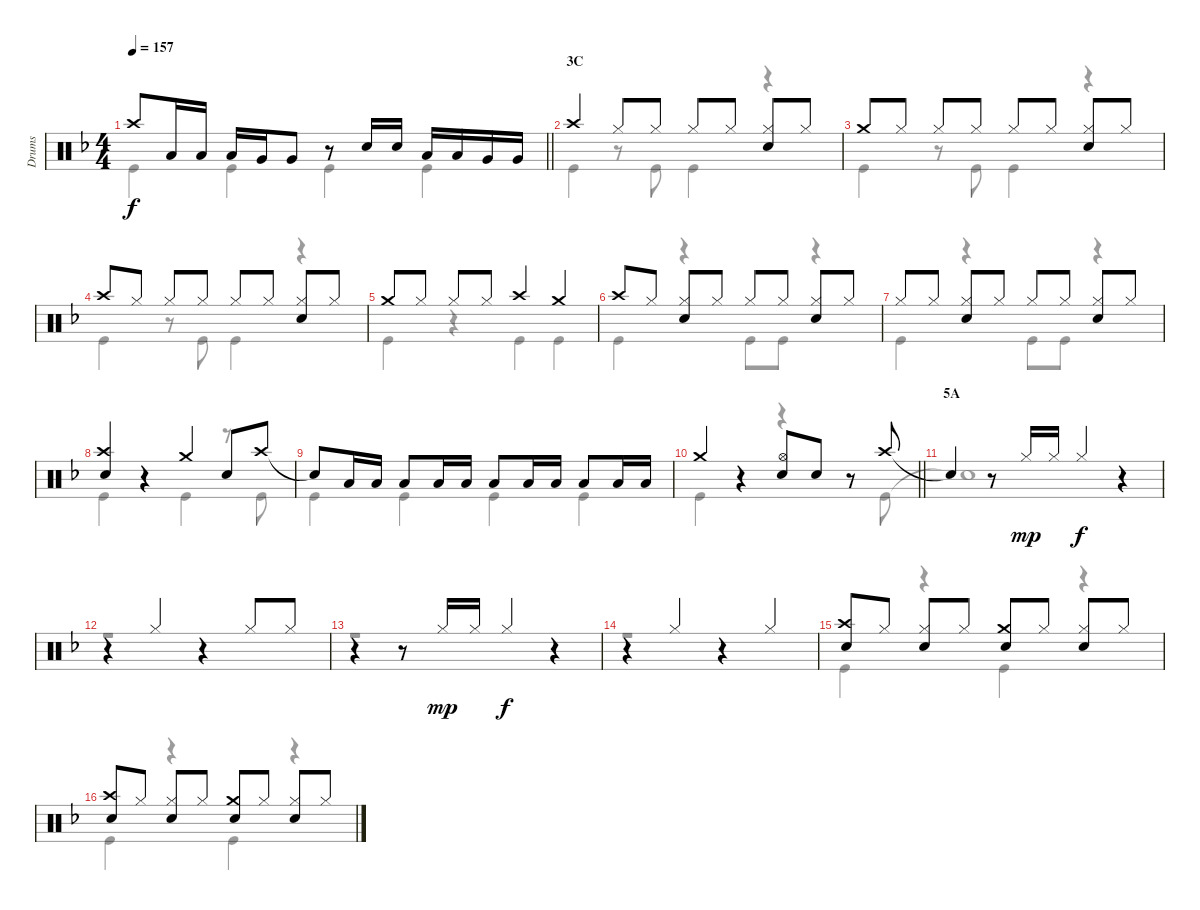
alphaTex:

\track ("Drums" "Drums") {instrument percussion}
\staff {score}
\articulation defaults
\voice
\ts (4 4)
\tempo 157
\clef neutral
\barLineRight lightlight
\ks f "Crash high (hit)".8{dy f} "Low Tom (hit)".16 "Low Tom (hit)".16 "Low Tom (hit)".16 "Very Low Tom (hit)".16 "Very Low Tom (hit)".8
r.8 "Snare (hit) 2".16 "Snare (hit) 2".16 "Low Tom (hit)".16 "Low Tom (hit)".16 "Very Low Tom (hit)".16 "Very Low Tom (hit)".16 |
\section ("" "3C")
"Crash high (hit)".4 "Hi-Hat (closed)".8 "Hi-Hat (closed)".8 "Hi-Hat (closed)".8 "Hi-Hat (closed)".8 ("Hi-Hat (closed)" "Snare (hit) 2").8 "Hi-Hat (closed)".8 |
"Crash medium (hit)".8 "Hi-Hat (closed)".8 "Hi-Hat (closed)".8 "Hi-Hat (closed)".8 "Hi-Hat (closed)".8 "Hi-Hat (closed)".8 ("Hi-Hat (closed)" "Snare (hit) 2").8 "Hi-Hat (closed)".8 |
"Crash high (hit)".8 "Hi-Hat (closed)".8 "Hi-Hat (closed)".8 "Hi-Hat (closed)".8 "Hi-Hat (closed)".8 "Hi-Hat (closed)".8 ("Hi-Hat (closed)" "Snare (hit) 2").8 "Hi-Hat (closed)".8 |
"Crash medium (hit)".8 "Hi-Hat (closed)".8 "Hi-Hat (closed)".8 "Hi-Hat (closed)".8 "Crash high (hit)".4 "Crash medium (hit)".4 |
"Crash high (hit)".8 "Hi-Hat (closed)".8 ("Hi-Hat (closed)" "Snare (hit) 2").8 "Hi-Hat (closed)".8 "Hi-Hat (closed)".8 "Hi-Hat (closed)".8 ("Hi-Hat (closed)" "Snare (hit) 2").8 "Hi-Hat (closed)".8 |
"Hi-Hat (closed)".8 "Hi-Hat (closed)".8 ("Hi-Hat (closed)" "Snare (hit) 2").8 "Hi-Hat (closed)".8 "Hi-Hat (closed)".8 "Hi-Hat (closed)".8 ("Hi-Hat (closed)" "Snare (hit) 2").8 "Hi-Hat (closed)".8 |
("Crash high (hit)" "Snare (hit) 2").4 r.4 "Crash medium (hit)".4 "Snare (hit) 2".8 "Crash high (hit)".8 |
"Snare (hit)"{t}.8 "Low Tom (hit)".16 "Low Tom (hit)".16 "Low Tom (hit)".8 "Low Tom (hit)".16 "Low Tom (hit)".16 "Low Tom (hit)".8 "Low Tom (hit)".16 "Low Tom (hit)".16 "Low Tom (hit)".8 "Low Tom (hit)".16 "Low Tom (hit)".16 |
\barLineRight lightlight "Crash medium (hit)".4
r.4 ("Hi-Hat (open)" "Snare (hit) 2").8 "Snare (hit) 2".8 r.8 "Crash high (hit)".8 |
\section ("" "5A")
"Snare (hit)"{t}.4 r.8 "Hi-Hat (closed)".16{dy mp} "Hi-Hat (closed)".16 "Hi-Hat (closed)".4{dy f} r.4 |
r.4 "Hi-Hat (closed)".4 r.4 "Hi-Hat (closed)".8 "Hi-Hat (closed)".8 |
r.4 r.8 "Hi-Hat (closed)".16{dy mp} "Hi-Hat (closed)".16 "Hi-Hat (closed)".4{dy f} r.4 |
r.4 "Hi-Hat (closed)".4 r.4 "Hi-Hat (closed)".4 |
("Crash high (hit)" "Snare (hit) 2").8 "Hi-Hat (closed)".8 ("Hi-Hat (closed)" "Snare (hit) 2").8 "Hi-Hat (closed)".8 ("Crash medium (hit)" "Snare (hit) 2").8 "Hi-Hat (closed)".8 ("Hi-Hat (closed)" "Snare (hit) 2").8 "Hi-Hat (closed)".8 |
("Crash high (hit)" "Snare (hit) 2").8 "Hi-Hat (closed)".8 ("Hi-Hat (closed)" "Snare (hit) 2").8 "Hi-Hat (closed)".8 ("Crash medium (hit)" "Snare (hit) 2").8 "Hi-Hat (closed)".8 ("Hi-Hat (closed)" "Snare (hit) 2").8 "Hi-Hat (closed)".8
\voice
\clef neutral
\ottava regular
\simile none
\barLineRight lightlight
\ks f "Kick (hit)".4{dy f} "Kick (hit)".4 "Kick (hit)".4 "Kick (hit)".4
|
"Kick (hit)".4 r.8 "Kick (hit)".8 "Kick (hit)".4 r.4 |
"Kick (hit)".4 r.8 "Kick (hit)".8 "Kick (hit)".4 r.4 |
"Kick (hit)".4 r.8 "Kick (hit)".8 "Kick (hit)".4 r.4 |
"Kick (hit)".4 r.4 "Kick (hit)".4 "Kick (hit)".4 |
"Kick (hit)".4 r.4 "Kick (hit)".8 "Kick (hit)".8 r.4 |
"Kick (hit)".4 r.4 "Kick (hit)".8 "Kick (hit)".8 r.4 |
"Kick (hit)".4 r.4 "Kick (hit)".4 r.8 "Kick (hit)".8 |
"Kick (hit)".4 "Kick (hit)".4 "Kick (hit)".4 "Kick (hit)".4 |
\barLineRight lightlight "Kick (hit)".4
r.4 r.4 r.8 "Kick (hit)".8 |
"Snare (hit)"{t}.1 |
r.1 |
r.1 |
r.1 |
"Kick (hit)".4 r.4 "Kick (hit)".4 r.4 |
"Kick (hit)".4 r.4 "Kick (hit)".4 r.4
